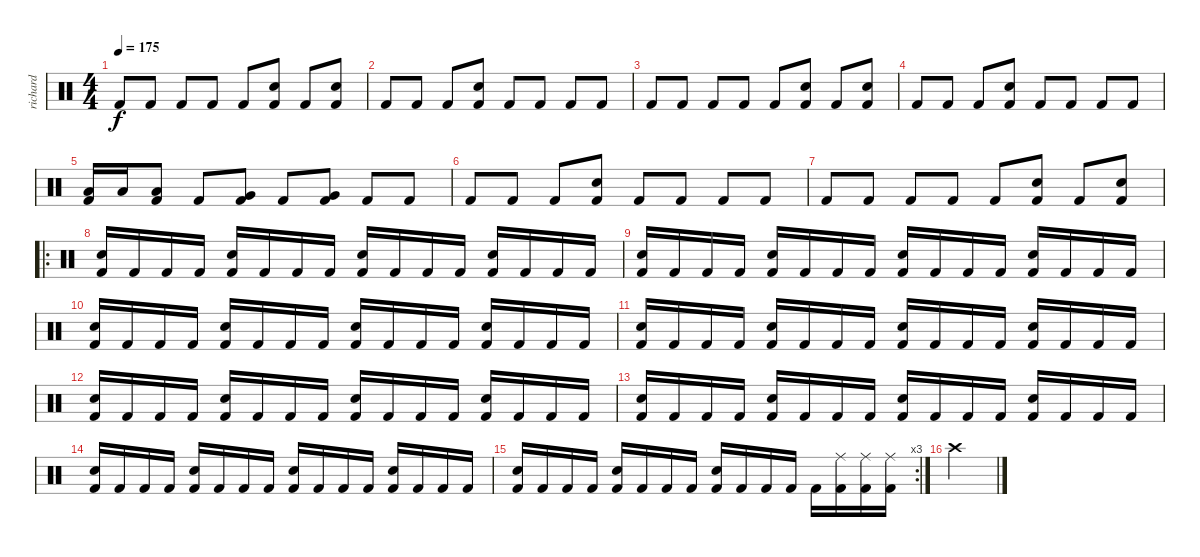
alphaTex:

\track ("richard" "richard") {instrument percussion}
\staff {score}
\articulation defaults
\ts (4 4)
\tempo 175
\clef neutral
\ks c "Kick (hit) 2".8{dy f} "Kick (hit) 2".8 "Kick (hit) 2".8 "Kick (hit) 2".8 "Kick (hit) 2".8
("Snare (hit) 2" "Kick (hit) 2").8 "Kick (hit) 2".8 ("Snare (hit) 2" "Kick (hit) 2").8 |
"Kick (hit) 2".8 "Kick (hit) 2".8 "Kick (hit) 2".8 ("Snare (hit) 2" "Kick (hit) 2").8 "Kick (hit) 2".8 "Kick (hit) 2".8 "Kick (hit) 2".8 "Kick (hit) 2".8 |
"Kick (hit) 2".8 "Kick (hit) 2".8 "Kick (hit) 2".8 "Kick (hit) 2".8 "Kick (hit) 2".8 ("Snare (hit) 2" "Kick (hit) 2").8 "Kick (hit) 2".8 ("Snare (hit) 2" "Kick (hit) 2").8 |
"Kick (hit) 2".8 "Kick (hit) 2".8 "Kick (hit) 2".8 ("Snare (hit) 2" "Kick (hit) 2").8 "Kick (hit) 2".8 "Kick (hit) 2".8 "Kick (hit) 2".8 "Kick (hit) 2".8 |
("Low Tom (hit)" "Kick (hit) 2").16 "Low Tom (hit)".16 ("Low Tom (hit)" "Kick (hit) 2").8 "Kick (hit) 2".8 ("Very Low Tom (hit)" "Kick (hit) 2").8 "Kick (hit) 2".8 ("Very Low Tom (hit)" "Kick (hit) 2").8 "Kick (hit) 2".8 "Kick (hit) 2".8 |
"Kick (hit) 2".8 "Kick (hit) 2".8 "Kick (hit) 2".8 ("Snare (hit) 2" "Kick (hit) 2").8 "Kick (hit) 2".8 "Kick (hit) 2".8 "Kick (hit) 2".8 "Kick (hit) 2".8 |
"Kick (hit) 2".8 "Kick (hit) 2".8 "Kick (hit) 2".8 "Kick (hit) 2".8 "Kick (hit) 2".8 ("Snare (hit) 2" "Kick (hit) 2").8 "Kick (hit) 2".8 ("Snare (hit) 2" "Kick (hit) 2").8 |
\ro
("Snare (hit) 2" "Kick (hit) 2").16 "Kick (hit) 2".16 "Kick (hit) 2".16 "Kick (hit) 2".16 ("Snare (hit) 2" "Kick (hit) 2").16 "Kick (hit) 2".16 "Kick (hit) 2".16 "Kick (hit) 2".16 ("Snare (hit) 2" "Kick (hit) 2").16 "Kick (hit) 2".16 "Kick (hit) 2".16 "Kick (hit) 2".16 ("Snare (hit) 2" "Kick (hit) 2").16 "Kick (hit) 2".16 "Kick (hit) 2".16 "Kick (hit) 2".16 |
("Snare (hit) 2" "Kick (hit) 2").16 "Kick (hit) 2".16 "Kick (hit) 2".16 "Kick (hit) 2".16 ("Snare (hit) 2" "Kick (hit) 2").16 "Kick (hit) 2".16 "Kick (hit) 2".16 "Kick (hit) 2".16 ("Snare (hit) 2" "Kick (hit) 2").16 "Kick (hit) 2".16 "Kick (hit) 2".16 "Kick (hit) 2".16 ("Snare (hit) 2" "Kick (hit) 2").16 "Kick (hit) 2".16 "Kick (hit) 2".16 "Kick (hit) 2".16 |
("Snare (hit) 2" "Kick (hit) 2").16 "Kick (hit) 2".16 "Kick (hit) 2".16 "Kick (hit) 2".16 ("Snare (hit) 2" "Kick (hit) 2").16 "Kick (hit) 2".16 "Kick (hit) 2".16 "Kick (hit) 2".16 ("Snare (hit) 2" "Kick (hit) 2").16 "Kick (hit) 2".16 "Kick (hit) 2".16 "Kick (hit) 2".16 ("Snare (hit) 2" "Kick (hit) 2").16 "Kick (hit) 2".16 "Kick (hit) 2".16 "Kick (hit) 2".16 |
("Snare (hit) 2" "Kick (hit) 2").16 "Kick (hit) 2".16 "Kick (hit) 2".16 "Kick (hit) 2".16 ("Snare (hit) 2" "Kick (hit) 2").16 "Kick (hit) 2".16 "Kick (hit) 2".16 "Kick (hit) 2".16 ("Snare (hit) 2" "Kick (hit) 2").16 "Kick (hit) 2".16 "Kick (hit) 2".16 "Kick (hit) 2".16 ("Snare (hit) 2" "Kick (hit) 2").16 "Kick (hit) 2".16 "Kick (hit) 2".16 "Kick (hit) 2".16 |
("Snare (hit) 2" "Kick (hit) 2").16 "Kick (hit) 2".16 "Kick (hit) 2".16 "Kick (hit) 2".16 ("Snare (hit) 2" "Kick (hit) 2").16 "Kick (hit) 2".16 "Kick (hit) 2".16 "Kick (hit) 2".16 ("Snare (hit) 2" "Kick (hit) 2").16 "Kick (hit) 2".16 "Kick (hit) 2".16 "Kick (hit) 2".16 ("Snare (hit) 2" "Kick (hit) 2").16 "Kick (hit) 2".16 "Kick (hit) 2".16 "Kick (hit) 2".16 |
("Snare (hit) 2" "Kick (hit) 2").16 "Kick (hit) 2".16 "Kick (hit) 2".16 "Kick (hit) 2".16 ("Snare (hit) 2" "Kick (hit) 2").16 "Kick (hit) 2".16 "Kick (hit) 2".16 "Kick (hit) 2".16 ("Snare (hit) 2" "Kick (hit) 2").16 "Kick (hit) 2".16 "Kick (hit) 2".16 "Kick (hit) 2".16 ("Snare (hit) 2" "Kick (hit) 2").16 "Kick (hit) 2".16 "Kick (hit) 2".16 "Kick (hit) 2".16 |
("Snare (hit) 2" "Kick (hit) 2").16 "Kick (hit) 2".16 "Kick (hit) 2".16 "Kick (hit) 2".16 ("Snare (hit) 2" "Kick (hit) 2").16 "Kick (hit) 2".16 "Kick (hit) 2".16 "Kick (hit) 2".16 ("Snare (hit) 2" "Kick (hit) 2").16 "Kick (hit) 2".16 "Kick (hit) 2".16 "Kick (hit) 2".16 ("Snare (hit) 2" "Kick (hit) 2").16 "Kick (hit) 2".16 "Kick (hit) 2".16 "Kick (hit) 2".16 |
\rc 3
("Snare (hit) 2" "Kick (hit) 2").16 "Kick (hit) 2".16 "Kick (hit) 2".16 "Kick (hit) 2".16 ("Snare (hit) 2" "Kick (hit) 2").16 "Kick (hit) 2".16 "Kick (hit) 2".16 "Kick (hit) 2".16 ("Snare (hit) 2" "Kick (hit) 2").16 "Kick (hit) 2".16 "Kick (hit) 2".16 "Kick (hit) 2".16 "Kick (hit) 2".16 ("Ride (middle)" "Kick (hit) 2").16 ("Ride (middle)" "Kick (hit) 2").16 ("Ride (middle)" "Kick (hit) 2").16 |
"Crash high (hit)".2
